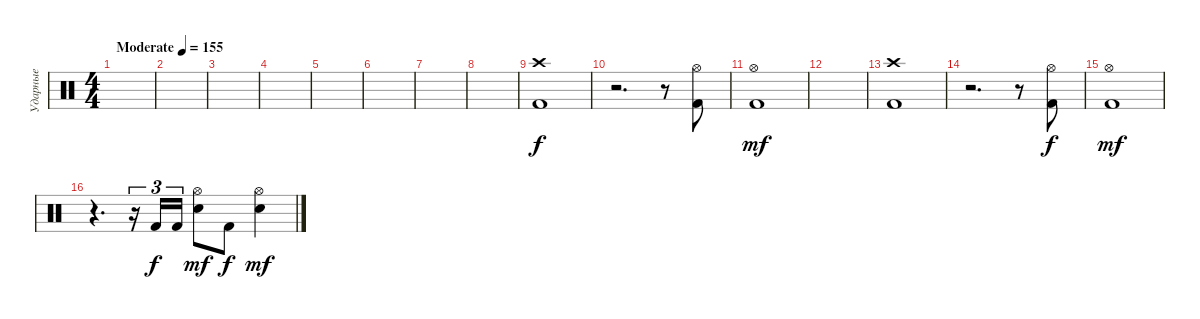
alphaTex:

\track ("Ударные" "Ударные") {instrument percussion}
\staff {score}
\articulation defaults
\ts (4 4)
\tempo (155 "Moderate")
\clef neutral
\ks c
|
|
|
|
|
|
|
|
("Kick (hit) 2" "Crash high (hit)").1 |
r.2{d} r.8 ("Kick (hit) 2" "Hi-Hat (open)").8{dy f} |
("Kick (hit) 2" "Hi-Hat (open)").1{dy mf} |
|
("Kick (hit) 2" "Crash high (hit)").1 |
r.2{d} r.8 ("Kick (hit) 2" "Hi-Hat (open)").8{dy f} |
("Kick (hit) 2" "Hi-Hat (open)").1{dy mf} |
r.4{d} r.16{tu (3 2)} "Kick (hit) 2".16{tu (3 2) dy f} "Kick (hit) 2".16{tu (3 2)} ("Snare (hit) 2" "Hi-Hat (open)").8{dy mf} "Kick (hit) 2".8{dy f} ("Snare (hit) 2" "Hi-Hat (open)").4{dy mf}
